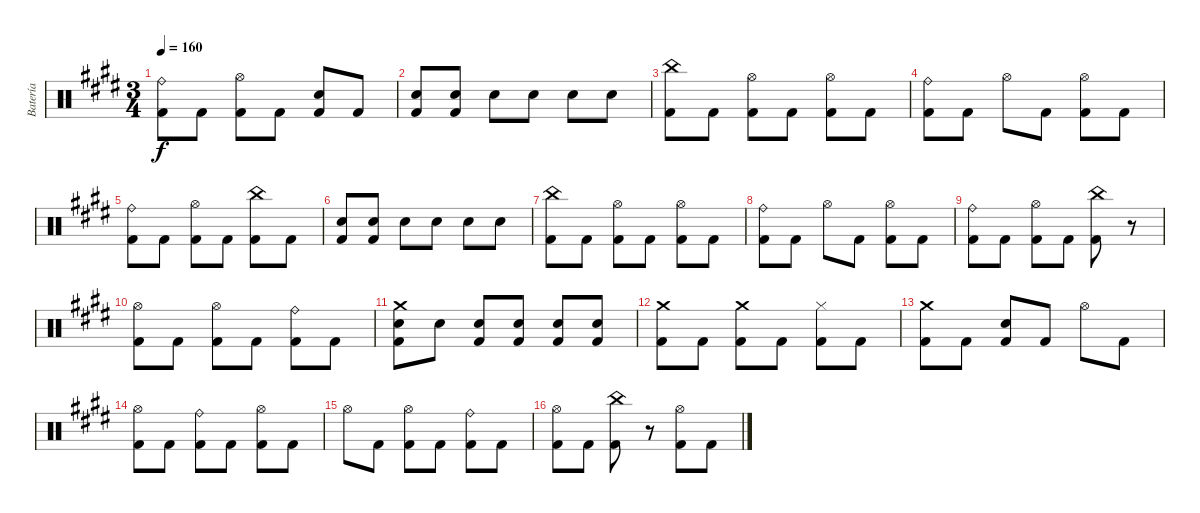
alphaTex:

\track ("Batería" "Batería") {instrument percussion}
\staff {score}
\articulation defaults
\ts (3 4)
\tempo 160
\clef neutral
\ks c#minor
("Ride (bell)" "Kick (hit) 2").8{dy f} "Kick (hit) 2".8 ("Hi-Hat (open)" "Kick (hit) 2").8 "Kick (hit) 2".8 ("Snare (hit) 2" "Kick (hit) 2").8 "Kick (hit) 2".8 |
("Snare (hit) 2" "Kick (hit) 2").8 ("Snare (hit) 2" "Kick (hit) 2").8 "Snare (hit) 2".8 "Snare (hit) 2".8 "Snare (hit) 2".8 "Snare (hit) 2".8 |
("China (hit)" "Kick (hit) 2").8 "Kick (hit) 2".8 ("Hi-Hat (open)" "Kick (hit) 2").8 "Kick (hit) 2".8 ("Hi-Hat (open)" "Kick (hit) 2").8 "Kick (hit) 2".8 |
("Ride (bell)" "Kick (hit) 2").8 "Kick (hit) 2".8 "Hi-Hat (open)".8 "Kick (hit) 2".8 ("Hi-Hat (open)" "Kick (hit) 2").8 "Kick (hit) 2".8 |
("Ride (bell)" "Kick (hit) 2").8 "Kick (hit) 2".8 ("Hi-Hat (open)" "Kick (hit) 2").8 "Kick (hit) 2".8 ("China (hit)" "Kick (hit) 2").8 "Kick (hit) 2".8 |
("Snare (hit) 2" "Kick (hit) 2").8 ("Snare (hit) 2" "Kick (hit) 2").8 "Snare (hit) 2".8 "Snare (hit) 2".8 "Snare (hit) 2".8 "Snare (hit) 2".8 |
("China (hit)" "Kick (hit) 2").8 "Kick (hit) 2".8 ("Hi-Hat (open)" "Kick (hit) 2").8 "Kick (hit) 2".8 ("Hi-Hat (open)" "Kick (hit) 2").8 "Kick (hit) 2".8 |
("Ride (bell)" "Kick (hit) 2").8 "Kick (hit) 2".8 "Hi-Hat (open)".8 "Kick (hit) 2".8 ("Hi-Hat (open)" "Kick (hit) 2").8 "Kick (hit) 2".8 |
("Ride (bell)" "Kick (hit) 2").8 "Kick (hit) 2".8 ("Hi-Hat (open)" "Kick (hit) 2").8 "Kick (hit) 2".8 ("China (hit)" "Kick (hit) 2").8 r.8 |
("Hi-Hat (open)" "Kick (hit) 2").8 "Kick (hit) 2".8 ("Hi-Hat (open)" "Kick (hit) 2").8 "Kick (hit) 2".8 ("Ride (bell)" "Kick (hit) 2").8 "Kick (hit) 2".8 |
("Crash medium (hit)" "Snare (hit) 2" "Kick (hit) 2").8 "Snare (hit) 2".8 ("Snare (hit) 2" "Kick (hit) 2").8 ("Snare (hit) 2" "Kick (hit) 2").8 ("Snare (hit) 2" "Kick (hit) 2").8 ("Snare (hit) 2" "Kick (hit) 2").8 |
("Crash medium (hit)" "Kick (hit) 2").8 "Kick (hit) 2".8 ("Crash medium (hit)" "Kick (hit) 2").8 "Kick (hit) 2".8 ("Hi-Hat (closed)" "Kick (hit) 2").8 "Kick (hit) 2".8 |
("Crash medium (hit)" "Kick (hit) 2").8 "Kick (hit) 2".8 ("Snare (hit) 2" "Kick (hit) 2").8 "Kick (hit) 2".8 "Hi-Hat (open)".8 "Kick (hit) 2".8 |
("Hi-Hat (open)" "Kick (hit) 2").8 "Kick (hit) 2".8 ("Ride (bell)" "Kick (hit) 2").8 "Kick (hit) 2".8 ("Hi-Hat (open)" "Kick (hit) 2").8 "Kick (hit) 2".8 |
"Hi-Hat (open)".8 "Kick (hit) 2".8 ("Hi-Hat (open)" "Kick (hit) 2").8 "Kick (hit) 2".8 ("Ride (bell)" "Kick (hit) 2").8 "Kick (hit) 2".8 |
("Hi-Hat (open)" "Kick (hit) 2").8 "Kick (hit) 2".8 ("China (hit)" "Kick (hit) 2").8 r.8 ("Hi-Hat (open)" "Kick (hit) 2").8 "Kick (hit) 2".8
